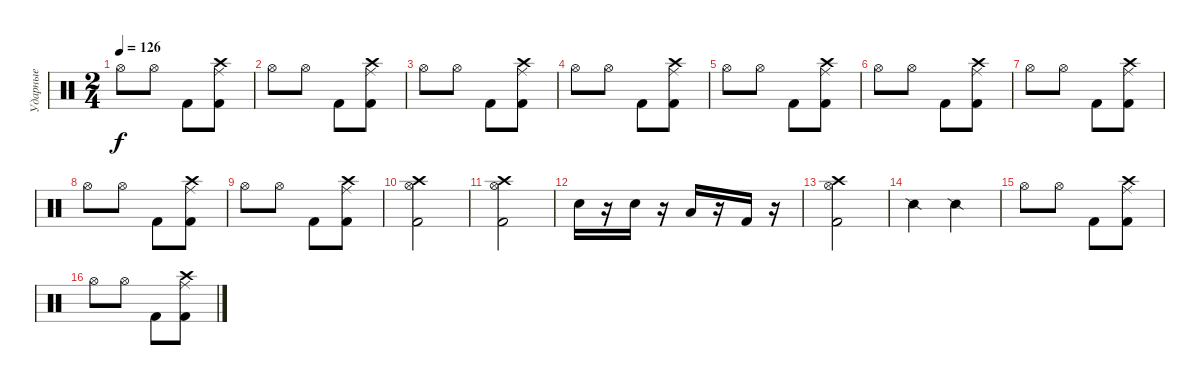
\track ("Ударные" "Ударные") {instrument percussion}
\staff {score}
\articulation defaults
\ts (2 4)
\tempo 126
\clef neutral
\ks c "Hi-Hat (open)".8{dy f} "Hi-Hat (open)".8 "Kick (hit) 2".8
("Crash high (hit)" "Kick (hit) 2" "Ride (middle)").8 |
"Hi-Hat (open)".8 "Hi-Hat (open)".8 "Kick (hit) 2".8 ("Crash high (hit)" "Kick (hit) 2" "Ride (middle)").8 |
"Hi-Hat (open)".8 "Hi-Hat (open)".8 "Kick (hit) 2".8 ("Crash high (hit)" "Kick (hit) 2" "Ride (middle)").8 |
"Hi-Hat (open)".8 "Hi-Hat (open)".8 "Kick (hit) 2".8 ("Crash high (hit)" "Kick (hit) 2" "Ride (middle)").8 |
"Hi-Hat (open)".8 "Hi-Hat (open)".8 "Kick (hit) 2".8 ("Crash high (hit)" "Kick (hit) 2" "Ride (middle)").8 |
"Hi-Hat (open)".8 "Hi-Hat (open)".8 "Kick (hit) 2".8 ("Crash high (hit)" "Kick (hit) 2" "Ride (middle)").8 |
"Hi-Hat (open)".8 "Hi-Hat (open)".8 "Kick (hit) 2".8 ("Crash high (hit)" "Kick (hit) 2" "Ride (middle)").8 |
"Hi-Hat (open)".8 "Hi-Hat (open)".8 "Kick (hit) 2".8 ("Crash high (hit)" "Kick (hit) 2" "Ride (middle)").8 |
"Hi-Hat (open)".8 "Hi-Hat (open)".8 "Kick (hit) 2".8 ("Crash high (hit)" "Kick (hit) 2" "Ride (middle)").8 |
("Crash high (hit)" "Kick (hit) 2" "Hi-Hat (open)").2 |
("Crash high (hit)" "Kick (hit) 2" "Hi-Hat (open)").2 |
"Electric Snare (hit)".16 r.16 "Snare (hit) 2".16 r.16 "Low Tom (hit)".16 r.16 "Kick (hit) 2".16 r.16 |
("Crash high (hit)" "Kick (hit) 2" "Hi-Hat (open)").2 |
"Snare (side stick) 2".4 "Snare (side stick) 2".4 |
"Hi-Hat (open)".8 "Hi-Hat (open)".8 "Kick (hit) 2".8 ("Crash high (hit)" "Kick (hit) 2" "Ride (middle)").8 |
"Hi-Hat (open)".8 "Hi-Hat (open)".8 "Kick (hit) 2".8 ("Crash high (hit)" "Kick (hit) 2" "Ride (middle)").8
